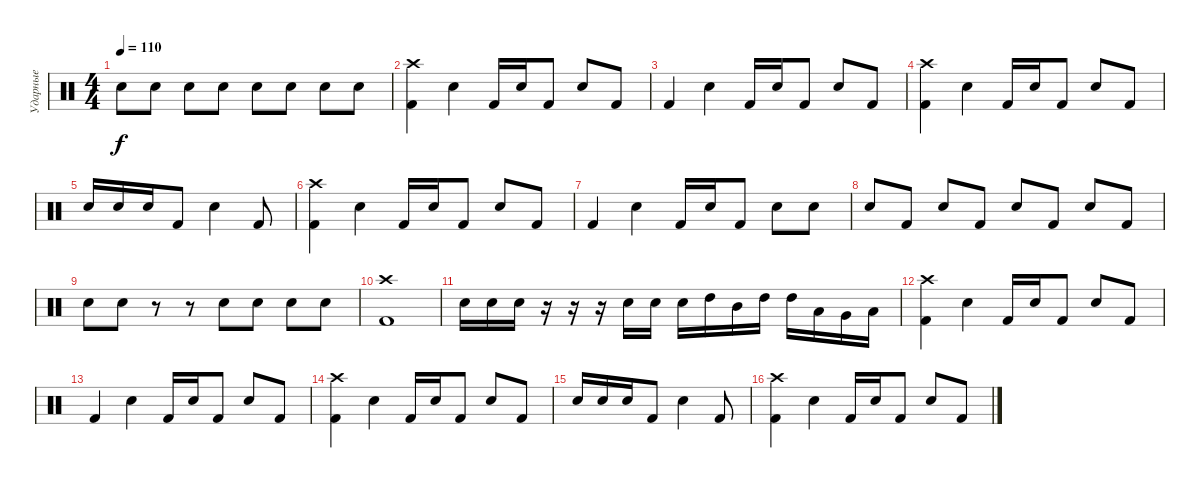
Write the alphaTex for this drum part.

\track ("Ударные" "Ударные") {instrument percussion}
\staff {score}
\articulation defaults
\ts (4 4)
\tempo 110
\clef neutral
\ks c "Electric Snare (hit)".8{dy f} "Electric Snare (hit)".8 "Electric Snare (hit)".8 "Electric Snare (hit)".8 "Electric Snare (hit)".8 "Electric Snare (hit)".8 "Electric Snare (hit)".8 "Electric Snare (hit)".8
|
("Crash high (hit)" "Kick (hit) 2").4 "Electric Snare (hit)".4 "Kick (hit) 2".16 "Electric Snare (hit)".16 "Kick (hit) 2".8 "Electric Snare (hit)".8 "Kick (hit) 2".8 |
"Kick (hit) 2".4 "Electric Snare (hit)".4 "Kick (hit) 2".16 "Electric Snare (hit)".16 "Kick (hit) 2".8 "Electric Snare (hit)".8 "Kick (hit) 2".8 |
("Crash high (hit)" "Kick (hit) 2").4 "Electric Snare (hit)".4 "Kick (hit) 2".16 "Electric Snare (hit)".16 "Kick (hit) 2".8 "Electric Snare (hit)".8 "Kick (hit) 2".8 |
"Electric Snare (hit)".16 "Electric Snare (hit)".16 "Electric Snare (hit)".16 "Kick (hit) 2".8 "Electric Snare (hit)".4 "Kick (hit) 2".8 |
("Crash high (hit)" "Kick (hit) 2").4 "Electric Snare (hit)".4 "Kick (hit) 2".16 "Electric Snare (hit)".16 "Kick (hit) 2".8 "Electric Snare (hit)".8 "Kick (hit) 2".8 |
"Kick (hit) 2".4 "Electric Snare (hit)".4 "Kick (hit) 2".16 "Electric Snare (hit)".16 "Kick (hit) 2".8 "Electric Snare (hit)".8 "Electric Snare (hit)".8 |
"Electric Snare (hit)".8 "Kick (hit) 2".8 "Electric Snare (hit)".8 "Kick (hit) 2".8 "Electric Snare (hit)".8 "Kick (hit) 2".8 "Electric Snare (hit)".8 "Kick (hit) 2".8 |
"Electric Snare (hit)".8 "Electric Snare (hit)".8 r.8 r.8 "Electric Snare (hit)".8 "Electric Snare (hit)".8 "Electric Snare (hit)".8 "Electric Snare (hit)".8 |
("Kick (hit) 2" "Crash high (hit)").1 |
"Electric Snare (hit)".16 "Electric Snare (hit)".16 "Electric Snare (hit)".16 r.16 r.16 r.16 "Electric Snare (hit)".16 "Electric Snare (hit)".16 "Electric Snare (hit)".16 "High Tom (hit)".16 "Mid Tom (hit)".16 "High Tom (hit)".16 "High Tom (hit)".16 "Low Tom (hit)".16 "Very Low Tom (hit)".16 "Low Floor Tom (hit)".16 |
("Crash high (hit)" "Kick (hit) 2").4 "Electric Snare (hit)".4 "Kick (hit) 2".16 "Electric Snare (hit)".16 "Kick (hit) 2".8 "Electric Snare (hit)".8 "Kick (hit) 2".8 |
"Kick (hit) 2".4 "Electric Snare (hit)".4 "Kick (hit) 2".16 "Electric Snare (hit)".16 "Kick (hit) 2".8 "Electric Snare (hit)".8 "Kick (hit) 2".8 |
("Crash high (hit)" "Kick (hit) 2").4 "Electric Snare (hit)".4 "Kick (hit) 2".16 "Electric Snare (hit)".16 "Kick (hit) 2".8 "Electric Snare (hit)".8 "Kick (hit) 2".8 |
"Electric Snare (hit)".16 "Electric Snare (hit)".16 "Electric Snare (hit)".16 "Kick (hit) 2".8 "Electric Snare (hit)".4 "Kick (hit) 2".8 |
("Crash high (hit)" "Kick (hit) 2").4 "Electric Snare (hit)".4 "Kick (hit) 2".16 "Electric Snare (hit)".16 "Kick (hit) 2".8 "Electric Snare (hit)".8 "Kick (hit) 2".8
